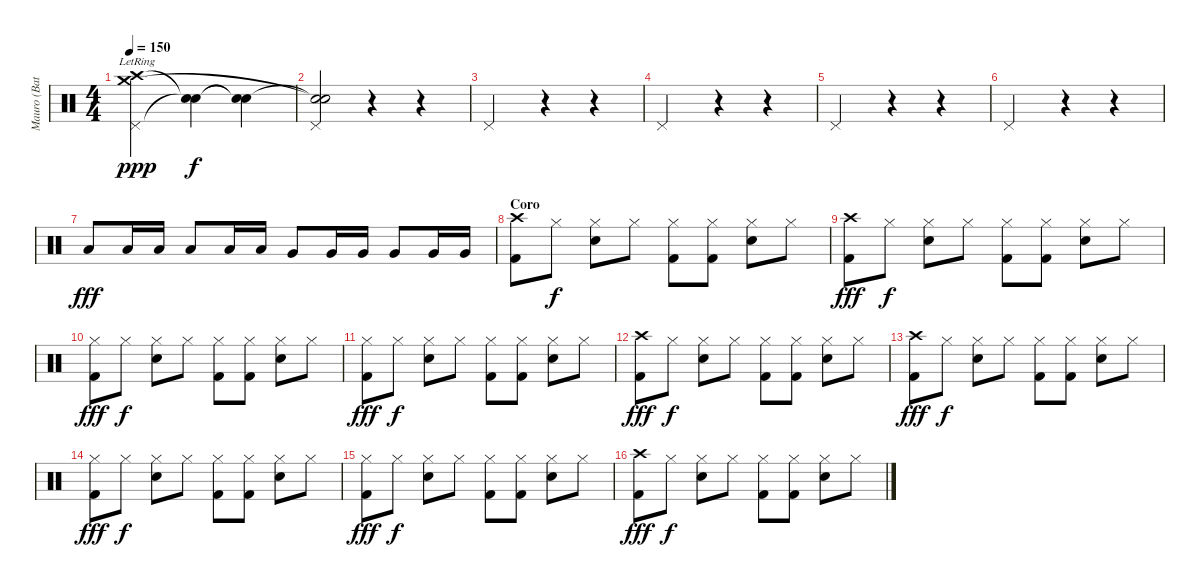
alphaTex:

\track ("Mauro (Bateria)" "Mauro (Bat") {instrument percussion}
\staff {score}
\articulation defaults
\ts (4 4)
\tempo 150
\clef neutral
\ks c
("Pedal Hi-Hat (hit)" "Crash high (hit)"{lr} "Crash medium (hit)"{lr}).2{dy ppp} ("Snare (hit)"{t} "Snare (hit)"{t}).4{dy f} ("Snare (hit)"{t} "Snare (hit)"{t}).4 |
("Pedal Hi-Hat (hit)" "Snare (hit)"{t} "Snare (hit)"{t}).2 r.4 r.4 |
"Pedal Hi-Hat (hit)".2 r.4 r.4 |
"Pedal Hi-Hat (hit)".2 r.4 r.4 |
"Pedal Hi-Hat (hit)".2 r.4 r.4 |
"Pedal Hi-Hat (hit)".2 r.4 r.4 |
\section ("" "")
"Low Tom (hit)".8{dy fff} "Low Tom (hit)".16 "Low Tom (hit)".16 "Low Tom (hit)".8 "Low Tom (hit)".16 "Low Tom (hit)".16 "Very Low Tom (hit)".8 "Very Low Tom (hit)".16 "Very Low Tom (hit)".16 "Very Low Tom (hit)".8 "Very Low Tom (hit)".16 "Very Low Tom (hit)".16 |
\section ("" "Coro")
("Crash high (hit)" "Kick (hit) 2").8 "Hi-Hat (closed)".8{dy f} ("Hi-Hat (closed)" "Snare (hit) 2").8 "Hi-Hat (closed)".8 ("Hi-Hat (closed)" "Kick (hit) 2").8 ("Hi-Hat (closed)" "Kick (hit) 2").8 ("Hi-Hat (closed)" "Snare (hit) 2").8 "Hi-Hat (closed)".8 |
("Crash high (hit)" "Kick (hit) 2").8{dy fff} "Hi-Hat (closed)".8{dy f} ("Hi-Hat (closed)" "Snare (hit) 2").8 "Hi-Hat (closed)".8 ("Hi-Hat (closed)" "Kick (hit) 2").8 ("Hi-Hat (closed)" "Kick (hit) 2").8 ("Hi-Hat (closed)" "Snare (hit) 2").8 "Hi-Hat (closed)".8 |
("Hi-Hat (closed)" "Kick (hit) 2").8{dy fff} "Hi-Hat (closed)".8{dy f} ("Hi-Hat (closed)" "Snare (hit) 2").8 "Hi-Hat (closed)".8 ("Hi-Hat (closed)" "Kick (hit) 2").8 ("Hi-Hat (closed)" "Kick (hit) 2").8 ("Hi-Hat (closed)" "Snare (hit) 2").8 "Hi-Hat (closed)".8 |
("Hi-Hat (closed)" "Kick (hit) 2").8{dy fff} "Hi-Hat (closed)".8{dy f} ("Hi-Hat (closed)" "Snare (hit) 2").8 "Hi-Hat (closed)".8 ("Hi-Hat (closed)" "Kick (hit) 2").8 ("Hi-Hat (closed)" "Kick (hit) 2").8 ("Hi-Hat (closed)" "Snare (hit) 2").8 "Hi-Hat (closed)".8 |
("Crash high (hit)" "Kick (hit) 2").8{dy fff} "Hi-Hat (closed)".8{dy f} ("Hi-Hat (closed)" "Snare (hit) 2").8 "Hi-Hat (closed)".8 ("Hi-Hat (closed)" "Kick (hit) 2").8 ("Hi-Hat (closed)" "Kick (hit) 2").8 ("Hi-Hat (closed)" "Snare (hit) 2").8 "Hi-Hat (closed)".8 |
("Crash high (hit)" "Kick (hit) 2").8{dy fff} "Hi-Hat (closed)".8{dy f} ("Hi-Hat (closed)" "Snare (hit) 2").8 "Hi-Hat (closed)".8 ("Hi-Hat (closed)" "Kick (hit) 2").8 ("Hi-Hat (closed)" "Kick (hit) 2").8 ("Hi-Hat (closed)" "Snare (hit) 2").8 "Hi-Hat (closed)".8 |
("Hi-Hat (closed)" "Kick (hit) 2").8{dy fff} "Hi-Hat (closed)".8{dy f} ("Hi-Hat (closed)" "Snare (hit) 2").8 "Hi-Hat (closed)".8 ("Hi-Hat (closed)" "Kick (hit) 2").8 ("Hi-Hat (closed)" "Kick (hit) 2").8 ("Hi-Hat (closed)" "Snare (hit) 2").8 "Hi-Hat (closed)".8 |
("Hi-Hat (closed)" "Kick (hit) 2").8{dy fff} "Hi-Hat (closed)".8{dy f} ("Hi-Hat (closed)" "Snare (hit) 2").8 "Hi-Hat (closed)".8 ("Hi-Hat (closed)" "Kick (hit) 2").8 ("Hi-Hat (closed)" "Kick (hit) 2").8 ("Hi-Hat (closed)" "Snare (hit) 2").8 "Hi-Hat (closed)".8 |
("Crash high (hit)" "Kick (hit) 2").8{dy fff} "Hi-Hat (closed)".8{dy f} ("Hi-Hat (closed)" "Snare (hit) 2").8 "Hi-Hat (closed)".8 ("Hi-Hat (closed)" "Kick (hit) 2").8 ("Hi-Hat (closed)" "Kick (hit) 2").8 ("Hi-Hat (closed)" "Snare (hit) 2").8 "Hi-Hat (closed)".8
